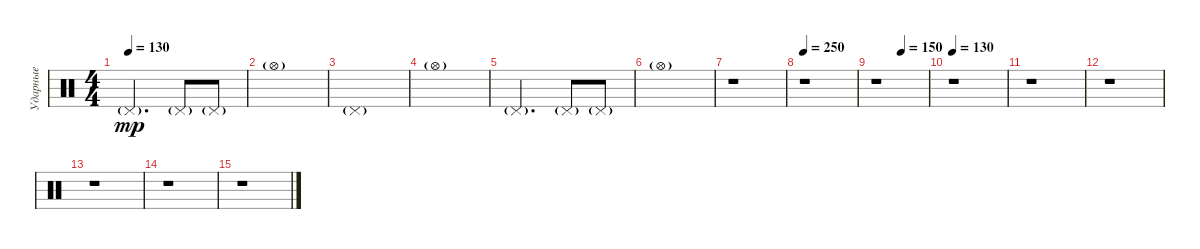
\track ("Ударные" "Ударные") {instrument percussion}
\staff {score}
\articulation defaults
\ts (4 4)
\tempo 130
\clef neutral
\ks c "Pedal Hi-Hat (hit)"{g}.2{d dy mp} "Pedal Hi-Hat (hit)"{g}.8 "Pedal Hi-Hat (hit)"{g}.8
|
"Hi-Hat (open)"{g}.1 |
"Pedal Hi-Hat (hit)"{g}.1 |
"Hi-Hat (open)"{g}.1 |
"Pedal Hi-Hat (hit)"{g}.2{d} "Pedal Hi-Hat (hit)"{g}.8 "Pedal Hi-Hat (hit)"{g}.8 |
"Hi-Hat (open)"{g}.1 |
r.1 |
\tempo 250
r.1 |
\tempo (150 0.5)
r.1 |
\tempo 130
r.1 |
r.1 |
r.1 |
r.1 |
r.1 |
r.1
